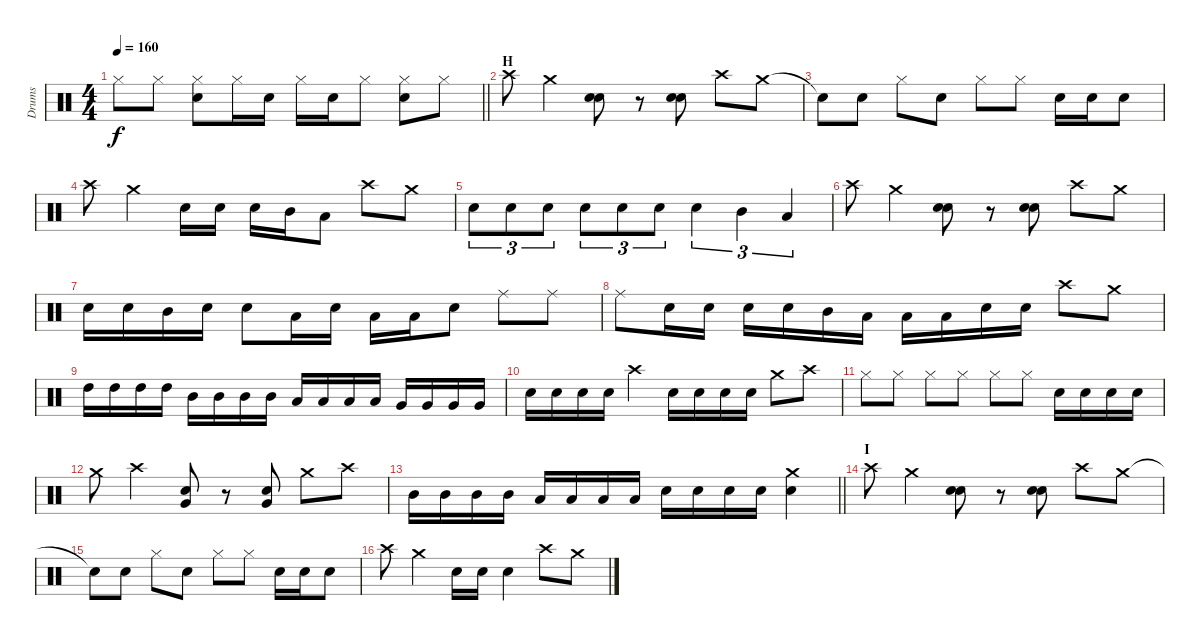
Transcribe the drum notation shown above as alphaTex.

\track ("Drums" "Drums") {instrument percussion}
\staff {score}
\articulation defaults
\ts (4 4)
\tempo 160
\clef neutral
\barLineRight lightlight
\ks c "Hi-Hat (closed)".8{dy f} "Hi-Hat (closed)".8
("Hi-Hat (closed)" "Snare (hit) 2").8 "Hi-Hat (closed)".16 "Snare (hit) 2".16 "Hi-Hat (closed)".16 "Snare (hit) 2".16 "Hi-Hat (closed)".8 ("Hi-Hat (closed)" "Snare (hit) 2").8 "Hi-Hat (closed)".8 |
\section ("" "H")
"Crash high (hit)".8 "Crash medium (hit)".4 ("Snare (hit) 2" "Snare (hit) 2").8 r.8 ("Snare (hit) 2" "Snare (hit) 2").8 "Crash high (hit)".8 "Crash medium (hit)".8 |
"Snare (hit)"{t}.8 "Snare (hit) 2".8 "Hi-Hat (closed)".8 "Snare (hit) 2".8 "Hi-Hat (closed)".8 "Hi-Hat (closed)".8 "Snare (hit) 2".16 "Snare (hit) 2".16 "Snare (hit) 2".8 |
"Crash high (hit)".8 "Crash medium (hit)".4 "Snare (hit) 2".16 "Snare (hit) 2".16 "Snare (hit) 2".16 "Mid Tom (hit)".16 "Low Tom (hit)".8 "Crash high (hit)".8 "Crash medium (hit)".8 |
"Snare (hit) 2".8{tu (3 2)} "Snare (hit) 2".8{tu (3 2)} "Snare (hit) 2".8{tu (3 2)} "Snare (hit) 2".8{tu (3 2)} "Snare (hit) 2".8{tu (3 2)} "Snare (hit) 2".8{tu (3 2)} "Snare (hit) 2".4{tu (3 2)} "Mid Tom (hit)".4{tu (3 2)} "Low Tom (hit)".4{tu (3 2)} |
"Crash high (hit)".8 "Crash medium (hit)".4 ("Snare (hit) 2" "Snare (hit) 2").8 r.8 ("Snare (hit) 2" "Snare (hit) 2").8 "Crash high (hit)".8 "Crash medium (hit)".8 |
"Snare (hit) 2".16 "Snare (hit) 2".16 "Mid Tom (hit)".16 "Snare (hit) 2".16 "Snare (hit) 2".8 "Low Tom (hit)".16 "Snare (hit) 2".16 "Low Tom (hit)".16 "Low Tom (hit)".16 "Snare (hit) 2".8 "Ride (middle)".8 "Ride (middle)".8 |
"Ride (middle)".8 "Snare (hit) 2".16 "Snare (hit) 2".16 "Snare (hit) 2".16 "Snare (hit) 2".16 "Mid Tom (hit)".16 "Low Tom (hit)".16 "Low Tom (hit)".16 "Low Tom (hit)".16 "Snare (hit) 2".16 "Snare (hit) 2".16 "Crash high (hit)".8 "Crash medium (hit)".8 |
"High Tom (hit)".16 "High Tom (hit)".16 "High Tom (hit)".16 "High Tom (hit)".16 "Mid Tom (hit)".16 "Mid Tom (hit)".16 "Mid Tom (hit)".16 "Mid Tom (hit)".16 "Low Tom (hit)".16 "Low Tom (hit)".16 "Low Tom (hit)".16 "Low Tom (hit)".16 "Very Low Tom (hit)".16 "Very Low Tom (hit)".16 "Very Low Tom (hit)".16 "Very Low Tom (hit)".16 |
"Snare (hit) 2".16 "Snare (hit) 2".16 "Snare (hit) 2".16 "Snare (hit) 2".16 "Crash high (hit)".4 "Snare (hit) 2".16 "Snare (hit) 2".16 "Snare (hit) 2".16 "Snare (hit) 2".16 "Crash medium (hit)".8 "Crash high (hit)".8 |
"Hi-Hat (closed)".8 "Hi-Hat (closed)".8 "Hi-Hat (closed)".8 "Hi-Hat (closed)".8 "Hi-Hat (closed)".8 "Hi-Hat (closed)".8 "Snare (hit) 2".16 "Snare (hit) 2".16 "Snare (hit) 2".16 "Snare (hit) 2".16 |
"Crash medium (hit)".8 "Crash high (hit)".4 ("Snare (hit) 2" "Very Low Tom (hit)").8 r.8 ("Snare (hit) 2" "Very Low Tom (hit)").8 "Crash medium (hit)".8 "Crash high (hit)".8 |
\barLineRight lightlight "Mid Tom (hit)".16 "Mid Tom (hit)".16 "Mid Tom (hit)".16 "Mid Tom (hit)".16 "Low Tom (hit)".16 "Low Tom (hit)".16 "Low Tom (hit)".16 "Low Tom (hit)".16 "Snare (hit) 2".16 "Snare (hit) 2".16 "Snare (hit) 2".16 "Snare (hit) 2".16
("Crash medium (hit)" "Snare (hit) 2").4 |
\section ("" "I")
"Crash high (hit)".8 "Crash medium (hit)".4 ("Snare (hit) 2" "Snare (hit) 2").8 r.8 ("Snare (hit) 2" "Snare (hit) 2").8 "Crash high (hit)".8 "Crash medium (hit)".8 |
"Snare (hit)"{t}.8 "Snare (hit) 2".8 "Hi-Hat (closed)".8 "Snare (hit) 2".8 "Hi-Hat (closed)".8 "Hi-Hat (closed)".8 "Snare (hit) 2".16 "Snare (hit) 2".16 "Snare (hit) 2".8 |
"Crash high (hit)".8 "Crash medium (hit)".4 "Snare (hit) 2".16 "Snare (hit) 2".16 "Snare (hit) 2".4 "Crash high (hit)".8 "Crash medium (hit)".8
